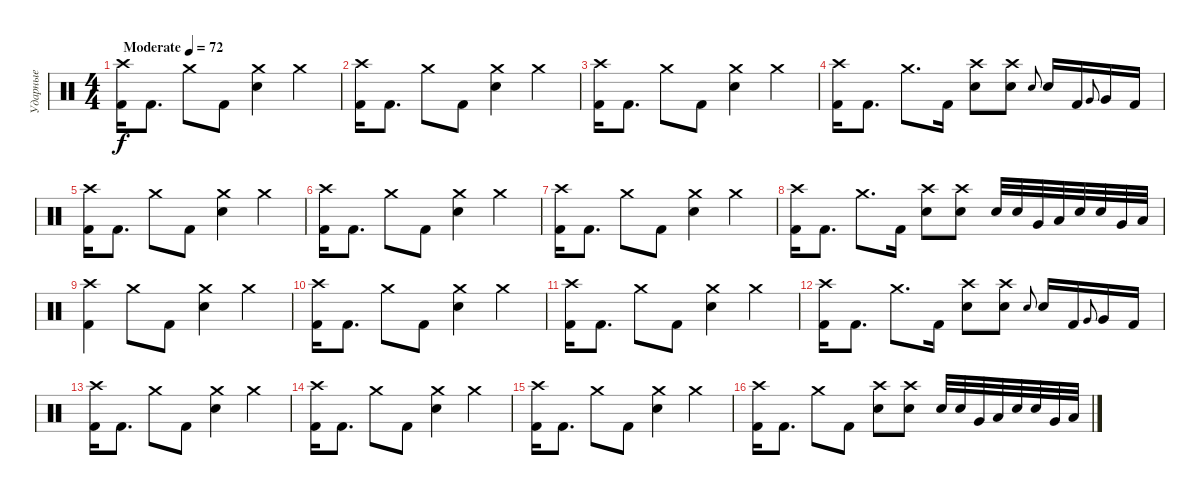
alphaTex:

\track ("Ударные" "Ударные") {instrument percussion}
\staff {score}
\articulation defaults
\ts (4 4)
\tempo (72 "Moderate")
\clef neutral
\ks c
("Crash high (hit)" "Kick (hit) 2").16{dy f} "Kick (hit) 2".8{d} "Crash medium (hit)".8 "Kick (hit) 2".8 ("Crash medium (hit)" "Snare (hit) 2").4 "Crash medium (hit)".4 |
("Crash high (hit)" "Kick (hit) 2").16 "Kick (hit) 2".8{d} "Crash medium (hit)".8 "Kick (hit) 2".8 ("Crash medium (hit)" "Snare (hit) 2").4 "Crash medium (hit)".4 |
("Crash high (hit)" "Kick (hit) 2").16 "Kick (hit) 2".8{d} "Crash medium (hit)".8 "Kick (hit) 2".8 ("Crash medium (hit)" "Snare (hit) 2").4 "Crash medium (hit)".4 |
("Crash high (hit)" "Kick (hit) 2").16 "Kick (hit) 2".8{d} "Crash medium (hit)".8{d} "Kick (hit) 2".16 ("Crash high (hit)" "Snare (hit) 2").8 ("Crash high (hit)" "Snare (hit) 2").8 "Snare (hit) 2".8{gr onbeat} "Snare (hit) 2".16 "Kick (hit) 2".16 "Very Low Tom (hit)".8{gr onbeat} "Very Low Tom (hit)".16 "Kick (hit) 2".16 |
("Crash high (hit)" "Kick (hit) 2").16 "Kick (hit) 2".8{d} "Crash medium (hit)".8 "Kick (hit) 2".8 ("Crash medium (hit)" "Snare (hit) 2").4 "Crash medium (hit)".4 |
("Crash high (hit)" "Kick (hit) 2").16 "Kick (hit) 2".8{d} "Crash medium (hit)".8 "Kick (hit) 2".8 ("Crash medium (hit)" "Snare (hit) 2").4 "Crash medium (hit)".4 |
("Crash high (hit)" "Kick (hit) 2").16 "Kick (hit) 2".8{d} "Crash medium (hit)".8 "Kick (hit) 2".8 ("Crash medium (hit)" "Snare (hit) 2").4 "Crash medium (hit)".4 |
("Crash high (hit)" "Kick (hit) 2").16 "Kick (hit) 2".8{d} "Crash medium (hit)".8{d} "Kick (hit) 2".16 ("Crash high (hit)" "Snare (hit) 2").8 ("Crash high (hit)" "Snare (hit) 2").8 "Snare (hit) 2".32 "Snare (hit) 2".32 "Very Low Tom (hit)".32 "Low Floor Tom (hit)".32 "Snare (hit) 2".32 "Snare (hit) 2".32 "Very Low Tom (hit)".32 "Low Floor Tom (hit)".32 |
("Crash high (hit)" "Kick (hit) 2").4 "Crash medium (hit)".8 "Kick (hit) 2".8 ("Crash medium (hit)" "Snare (hit) 2").4 "Crash medium (hit)".4 |
("Crash high (hit)" "Kick (hit) 2").16 "Kick (hit) 2".8{d} "Crash medium (hit)".8 "Kick (hit) 2".8 ("Crash medium (hit)" "Snare (hit) 2").4 "Crash medium (hit)".4 |
("Crash high (hit)" "Kick (hit) 2").16 "Kick (hit) 2".8{d} "Crash medium (hit)".8 "Kick (hit) 2".8 ("Crash medium (hit)" "Snare (hit) 2").4 "Crash medium (hit)".4 |
("Crash high (hit)" "Kick (hit) 2").16 "Kick (hit) 2".8{d} "Crash medium (hit)".8{d} "Kick (hit) 2".16 ("Crash high (hit)" "Snare (hit) 2").8 ("Crash high (hit)" "Snare (hit) 2").8 "Snare (hit) 2".8{gr onbeat} "Snare (hit) 2".16 "Kick (hit) 2".16 "Very Low Tom (hit)".8{gr onbeat} "Very Low Tom (hit)".16 "Kick (hit) 2".16 |
("Crash high (hit)" "Kick (hit) 2").16 "Kick (hit) 2".8{d} "Crash medium (hit)".8 "Kick (hit) 2".8 ("Crash medium (hit)" "Snare (hit) 2").4 "Crash medium (hit)".4 |
("Crash high (hit)" "Kick (hit) 2").16 "Kick (hit) 2".8{d} "Crash medium (hit)".8 "Kick (hit) 2".8 ("Crash medium (hit)" "Snare (hit) 2").4 "Crash medium (hit)".4 |
("Crash high (hit)" "Kick (hit) 2").16 "Kick (hit) 2".8{d} "Crash medium (hit)".8 "Kick (hit) 2".8 ("Crash medium (hit)" "Snare (hit) 2").4 "Crash medium (hit)".4 |
("Crash high (hit)" "Kick (hit) 2").16 "Kick (hit) 2".8{d} "Crash medium (hit)".8 "Kick (hit) 2".8 ("Crash high (hit)" "Snare (hit) 2").8 ("Crash high (hit)" "Snare (hit) 2").8 "Snare (hit) 2".32 "Snare (hit) 2".32 "Very Low Tom (hit)".32 "Low Floor Tom (hit)".32 "Snare (hit) 2".32 "Snare (hit) 2".32 "Very Low Tom (hit)".32 "Low Floor Tom (hit)".32
